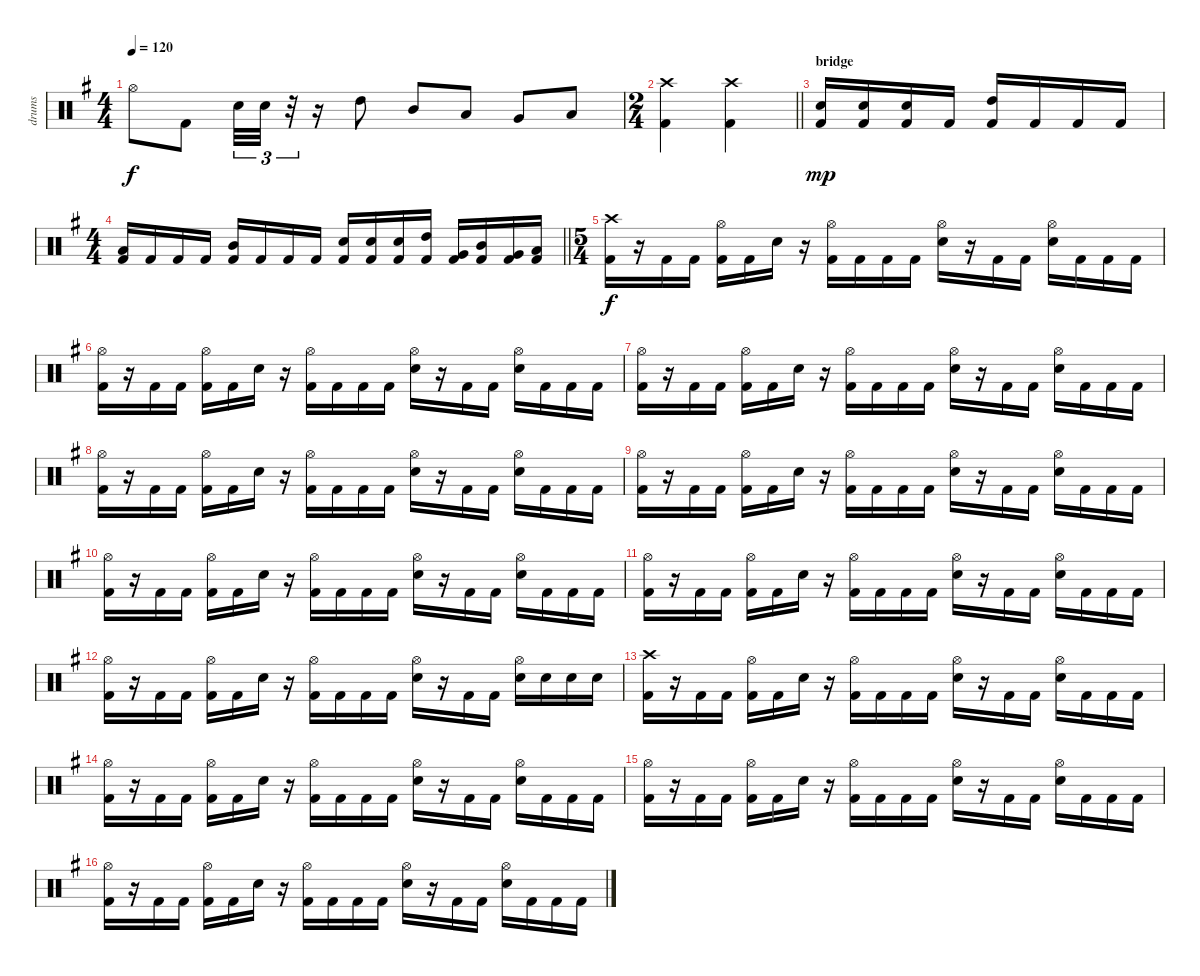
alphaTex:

\track ("drums" "drums") {instrument percussion}
\staff {score}
\articulation defaults
\ts (4 4)
\tempo 120
\clef neutral
\ks g "Hi-Hat (open)".8{dy f} "Kick (hit) 2".8 "Snare (hit) 2".32{tu (3 2)} "Snare (hit) 2".32{tu (3 2)}
r.32{tu (3 2)} r.16 "High Tom (hit)".8 "Mid Tom (hit)".8 "Low Tom (hit)".8 "Very Low Tom (hit)".8 "Low Floor Tom (hit)".8 |
\ts (2 4)
\barLineRight lightlight
("Crash high (hit)" "Kick (hit) 2").4 ("Crash high (hit)" "Kick (hit) 2").4 |
\section ("" "bridge")
("Snare (hit) 2" "Kick (hit) 2").16{dy mp} ("Snare (hit) 2" "Kick (hit) 2").16 ("Snare (hit) 2" "Kick (hit) 2").16 "Kick (hit) 2".16 ("High Tom (hit)" "Kick (hit) 2").16 "Kick (hit) 2".16 "Kick (hit) 2".16 "Kick (hit) 2".16 |
\ts (4 4)
\barLineRight lightlight
("Low Tom (hit)" "Kick (hit) 2").16 "Kick (hit) 2".16 "Kick (hit) 2".16 "Kick (hit) 2".16 ("Mid Tom (hit)" "Kick (hit) 2").16 "Kick (hit) 2".16 "Kick (hit) 2".16 "Kick (hit) 2".16 ("Snare (hit) 2" "Kick (hit) 2").16 ("Snare (hit) 2" "Kick (hit) 2").16 ("Snare (hit) 2" "Kick (hit) 2").16 ("High Tom (hit)" "Kick (hit) 2").16 ("Very Low Tom (hit)" "Kick (hit) 2").16 ("Mid Tom (hit)" "Kick (hit) 2").16 ("Very Low Tom (hit)" "Kick (hit) 2").16 ("Low Tom (hit)" "Kick (hit) 2").16 |
\ts (5 4)
("Crash high (hit)" "Kick (hit) 2").16{dy f} r.16 "Kick (hit) 2".16 "Kick (hit) 2".16 ("Hi-Hat (open)" "Kick (hit) 2").16 "Kick (hit) 2".16 "Snare (hit) 2".16 r.16 ("Hi-Hat (open)" "Kick (hit) 2").16 "Kick (hit) 2".16 "Kick (hit) 2".16 "Kick (hit) 2".16 ("Hi-Hat (open)" "Snare (hit) 2").16 r.16 "Kick (hit) 2".16 "Kick (hit) 2".16 ("Hi-Hat (open)" "Snare (hit) 2").16 "Kick (hit) 2".16 "Kick (hit) 2".16 "Kick (hit) 2".16 |
("Hi-Hat (open)" "Kick (hit) 2").16 r.16 "Kick (hit) 2".16 "Kick (hit) 2".16 ("Hi-Hat (open)" "Kick (hit) 2").16 "Kick (hit) 2".16 "Snare (hit) 2".16 r.16 ("Hi-Hat (open)" "Kick (hit) 2").16 "Kick (hit) 2".16 "Kick (hit) 2".16 "Kick (hit) 2".16 ("Hi-Hat (open)" "Snare (hit) 2").16 r.16 "Kick (hit) 2".16 "Kick (hit) 2".16 ("Hi-Hat (open)" "Snare (hit) 2").16 "Kick (hit) 2".16 "Kick (hit) 2".16 "Kick (hit) 2".16 |
("Hi-Hat (open)" "Kick (hit) 2").16 r.16 "Kick (hit) 2".16 "Kick (hit) 2".16 ("Hi-Hat (open)" "Kick (hit) 2").16 "Kick (hit) 2".16 "Snare (hit) 2".16 r.16 ("Hi-Hat (open)" "Kick (hit) 2").16 "Kick (hit) 2".16 "Kick (hit) 2".16 "Kick (hit) 2".16 ("Hi-Hat (open)" "Snare (hit) 2").16 r.16 "Kick (hit) 2".16 "Kick (hit) 2".16 ("Hi-Hat (open)" "Snare (hit) 2").16 "Kick (hit) 2".16 "Kick (hit) 2".16 "Kick (hit) 2".16 |
("Hi-Hat (open)" "Kick (hit) 2").16 r.16 "Kick (hit) 2".16 "Kick (hit) 2".16 ("Hi-Hat (open)" "Kick (hit) 2").16 "Kick (hit) 2".16 "Snare (hit) 2".16 r.16 ("Hi-Hat (open)" "Kick (hit) 2").16 "Kick (hit) 2".16 "Kick (hit) 2".16 "Kick (hit) 2".16 ("Hi-Hat (open)" "Snare (hit) 2").16 r.16 "Kick (hit) 2".16 "Kick (hit) 2".16 ("Hi-Hat (open)" "Snare (hit) 2").16 "Kick (hit) 2".16 "Kick (hit) 2".16 "Kick (hit) 2".16 |
("Hi-Hat (open)" "Kick (hit) 2").16 r.16 "Kick (hit) 2".16 "Kick (hit) 2".16 ("Hi-Hat (open)" "Kick (hit) 2").16 "Kick (hit) 2".16 "Snare (hit) 2".16 r.16 ("Hi-Hat (open)" "Kick (hit) 2").16 "Kick (hit) 2".16 "Kick (hit) 2".16 "Kick (hit) 2".16 ("Hi-Hat (open)" "Snare (hit) 2").16 r.16 "Kick (hit) 2".16 "Kick (hit) 2".16 ("Hi-Hat (open)" "Snare (hit) 2").16 "Kick (hit) 2".16 "Kick (hit) 2".16 "Kick (hit) 2".16 |
\ks eminor
("Hi-Hat (open)" "Kick (hit) 2").16 r.16 "Kick (hit) 2".16 "Kick (hit) 2".16 ("Hi-Hat (open)" "Kick (hit) 2").16 "Kick (hit) 2".16 "Snare (hit) 2".16 r.16 ("Hi-Hat (open)" "Kick (hit) 2").16 "Kick (hit) 2".16 "Kick (hit) 2".16 "Kick (hit) 2".16 ("Hi-Hat (open)" "Snare (hit) 2").16 r.16 "Kick (hit) 2".16 "Kick (hit) 2".16 ("Hi-Hat (open)" "Snare (hit) 2").16 "Kick (hit) 2".16 "Kick (hit) 2".16 "Kick (hit) 2".16 |
("Hi-Hat (open)" "Kick (hit) 2").16 r.16 "Kick (hit) 2".16 "Kick (hit) 2".16 ("Hi-Hat (open)" "Kick (hit) 2").16 "Kick (hit) 2".16 "Snare (hit) 2".16 r.16 ("Hi-Hat (open)" "Kick (hit) 2").16 "Kick (hit) 2".16 "Kick (hit) 2".16 "Kick (hit) 2".16 ("Hi-Hat (open)" "Snare (hit) 2").16 r.16 "Kick (hit) 2".16 "Kick (hit) 2".16 ("Hi-Hat (open)" "Snare (hit) 2").16 "Kick (hit) 2".16 "Kick (hit) 2".16 "Kick (hit) 2".16 |
("Hi-Hat (open)" "Kick (hit) 2").16 r.16 "Kick (hit) 2".16 "Kick (hit) 2".16 ("Hi-Hat (open)" "Kick (hit) 2").16 "Kick (hit) 2".16 "Snare (hit) 2".16 r.16 ("Hi-Hat (open)" "Kick (hit) 2").16 "Kick (hit) 2".16 "Kick (hit) 2".16 "Kick (hit) 2".16 ("Hi-Hat (open)" "Snare (hit) 2").16 r.16 "Kick (hit) 2".16 "Kick (hit) 2".16 ("Hi-Hat (open)" "Snare (hit) 2").16 "Snare (hit) 2".16 "Snare (hit) 2".16 "Snare (hit) 2".16 |
("Crash high (hit)" "Kick (hit) 2").16 r.16 "Kick (hit) 2".16 "Kick (hit) 2".16 ("Hi-Hat (open)" "Kick (hit) 2").16 "Kick (hit) 2".16 "Snare (hit) 2".16 r.16 ("Hi-Hat (open)" "Kick (hit) 2").16 "Kick (hit) 2".16 "Kick (hit) 2".16 "Kick (hit) 2".16 ("Hi-Hat (open)" "Snare (hit) 2").16 r.16 "Kick (hit) 2".16 "Kick (hit) 2".16 ("Hi-Hat (open)" "Snare (hit) 2").16 "Kick (hit) 2".16 "Kick (hit) 2".16 "Kick (hit) 2".16 |
("Hi-Hat (open)" "Kick (hit) 2").16 r.16 "Kick (hit) 2".16 "Kick (hit) 2".16 ("Hi-Hat (open)" "Kick (hit) 2").16 "Kick (hit) 2".16 "Snare (hit) 2".16 r.16 ("Hi-Hat (open)" "Kick (hit) 2").16 "Kick (hit) 2".16 "Kick (hit) 2".16 "Kick (hit) 2".16 ("Hi-Hat (open)" "Snare (hit) 2").16 r.16 "Kick (hit) 2".16 "Kick (hit) 2".16 ("Hi-Hat (open)" "Snare (hit) 2").16 "Kick (hit) 2".16 "Kick (hit) 2".16 "Kick (hit) 2".16 |
("Hi-Hat (open)" "Kick (hit) 2").16 r.16 "Kick (hit) 2".16 "Kick (hit) 2".16 ("Hi-Hat (open)" "Kick (hit) 2").16 "Kick (hit) 2".16 "Snare (hit) 2".16 r.16 ("Hi-Hat (open)" "Kick (hit) 2").16 "Kick (hit) 2".16 "Kick (hit) 2".16 "Kick (hit) 2".16 ("Hi-Hat (open)" "Snare (hit) 2").16 r.16 "Kick (hit) 2".16 "Kick (hit) 2".16 ("Hi-Hat (open)" "Snare (hit) 2").16 "Kick (hit) 2".16 "Kick (hit) 2".16 "Kick (hit) 2".16 |
("Hi-Hat (open)" "Kick (hit) 2").16 r.16 "Kick (hit) 2".16 "Kick (hit) 2".16 ("Hi-Hat (open)" "Kick (hit) 2").16 "Kick (hit) 2".16 "Snare (hit) 2".16 r.16 ("Hi-Hat (open)" "Kick (hit) 2").16 "Kick (hit) 2".16 "Kick (hit) 2".16 "Kick (hit) 2".16 ("Hi-Hat (open)" "Snare (hit) 2").16 r.16 "Kick (hit) 2".16 "Kick (hit) 2".16 ("Hi-Hat (open)" "Snare (hit) 2").16 "Kick (hit) 2".16 "Kick (hit) 2".16 "Kick (hit) 2".16
